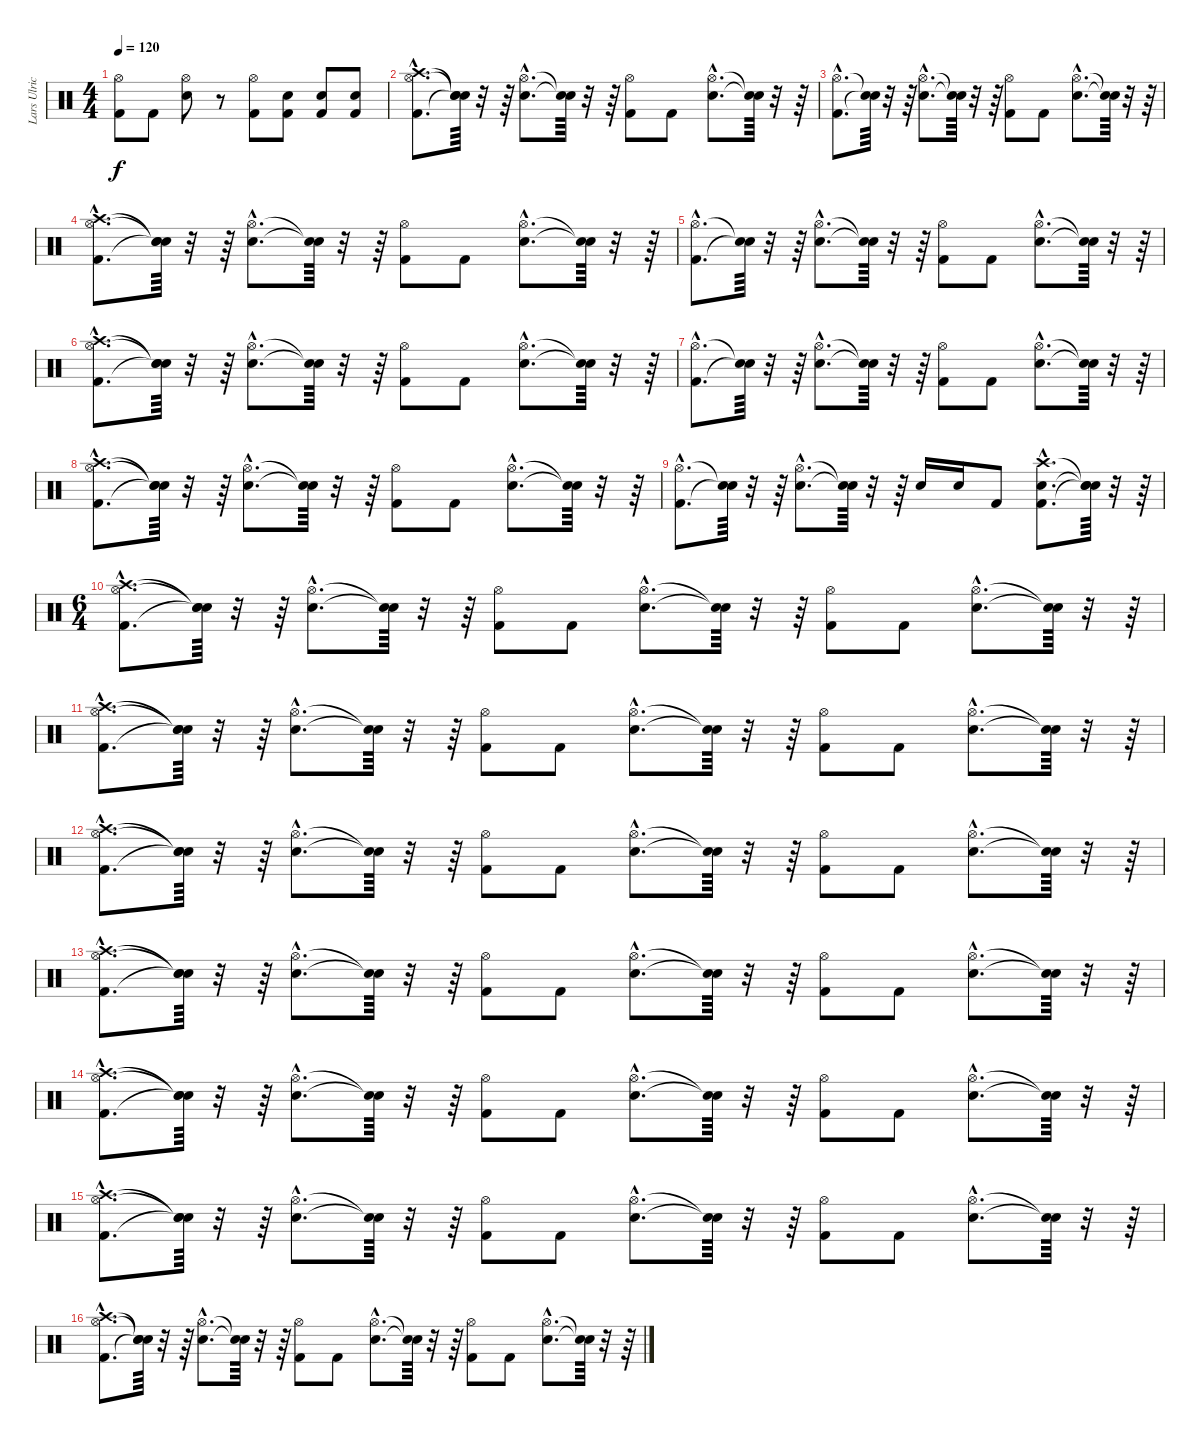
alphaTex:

\track ("Lars Ulrich" "Lars Ulric") {instrument percussion}
\staff {score}
\articulation defaults
\ts (4 4)
\tempo 120
\clef neutral
\ks c
("Kick (hit) 2" "Hi-Hat (open)").8{dy f} "Kick (hit) 2".8 ("Snare (hit) 2" "Hi-Hat (open)").8 r.8 ("Kick (hit) 2" "Hi-Hat (open)").8 ("Kick (hit) 2" "Snare (hit) 2").8 ("Kick (hit) 2" "Snare (hit) 2").8 ("Kick (hit) 2" "Snare (hit) 2").8 |
("Kick (hit) 2"{hac} "Hi-Hat (open)"{hac} "Crash high (hit)"{hac}).8{d} ("Snare (hit)"{t} "Snare (hit)"{t} "Snare (hit)"{t}).64 r.32 r.64 ("Snare (hit) 2"{hac} "Hi-Hat (open)"{hac}).8{d} ("Snare (hit)"{t} "Snare (hit)"{t}).64 r.32 r.64 ("Kick (hit) 2" "Hi-Hat (open)").8 "Kick (hit) 2".8 ("Snare (hit) 2"{hac} "Hi-Hat (open)"{hac}).8{d} ("Snare (hit)"{t} "Snare (hit)"{t}).64 r.32 r.64 |
("Kick (hit) 2"{hac} "Hi-Hat (open)"{hac}).8{d} ("Snare (hit)"{t} "Snare (hit)"{t}).64 r.32 r.64 ("Snare (hit) 2"{hac} "Hi-Hat (open)"{hac}).8{d} ("Snare (hit)"{t} "Snare (hit)"{t}).64 r.32 r.64 ("Kick (hit) 2" "Hi-Hat (open)").8 "Kick (hit) 2".8 ("Snare (hit) 2"{hac} "Hi-Hat (open)"{hac}).8{d} ("Snare (hit)"{t} "Snare (hit)"{t}).64 r.32 r.64 |
("Kick (hit) 2"{hac} "Hi-Hat (open)"{hac} "Crash high (hit)"{hac}).8{d} ("Snare (hit)"{t} "Snare (hit)"{t} "Snare (hit)"{t}).64 r.32 r.64 ("Snare (hit) 2"{hac} "Hi-Hat (open)"{hac}).8{d} ("Snare (hit)"{t} "Snare (hit)"{t}).64 r.32 r.64 ("Kick (hit) 2" "Hi-Hat (open)").8 "Kick (hit) 2".8 ("Snare (hit) 2"{hac} "Hi-Hat (open)"{hac}).8{d} ("Snare (hit)"{t} "Snare (hit)"{t}).64 r.32 r.64 |
("Kick (hit) 2"{hac} "Hi-Hat (open)"{hac}).8{d} ("Snare (hit)"{t} "Snare (hit)"{t}).64 r.32 r.64 ("Snare (hit) 2"{hac} "Hi-Hat (open)"{hac}).8{d} ("Snare (hit)"{t} "Snare (hit)"{t}).64 r.32 r.64 ("Kick (hit) 2" "Hi-Hat (open)").8 "Kick (hit) 2".8 ("Snare (hit) 2"{hac} "Hi-Hat (open)"{hac}).8{d} ("Snare (hit)"{t} "Snare (hit)"{t}).64 r.32 r.64 |
("Kick (hit) 2"{hac} "Hi-Hat (open)"{hac} "Crash high (hit)"{hac}).8{d} ("Snare (hit)"{t} "Snare (hit)"{t} "Snare (hit)"{t}).64 r.32 r.64 ("Snare (hit) 2"{hac} "Hi-Hat (open)"{hac}).8{d} ("Snare (hit)"{t} "Snare (hit)"{t}).64 r.32 r.64 ("Kick (hit) 2" "Hi-Hat (open)").8 "Kick (hit) 2".8 ("Snare (hit) 2"{hac} "Hi-Hat (open)"{hac}).8{d} ("Snare (hit)"{t} "Snare (hit)"{t}).64 r.32 r.64 |
("Kick (hit) 2"{hac} "Hi-Hat (open)"{hac}).8{d} ("Snare (hit)"{t} "Snare (hit)"{t}).64 r.32 r.64 ("Snare (hit) 2"{hac} "Hi-Hat (open)"{hac}).8{d} ("Snare (hit)"{t} "Snare (hit)"{t}).64 r.32 r.64 ("Kick (hit) 2" "Hi-Hat (open)").8 "Kick (hit) 2".8 ("Snare (hit) 2"{hac} "Hi-Hat (open)"{hac}).8{d} ("Snare (hit)"{t} "Snare (hit)"{t}).64 r.32 r.64 |
("Kick (hit) 2"{hac} "Hi-Hat (open)"{hac} "Crash high (hit)"{hac}).8{d} ("Snare (hit)"{t} "Snare (hit)"{t} "Snare (hit)"{t}).64 r.32 r.64 ("Snare (hit) 2"{hac} "Hi-Hat (open)"{hac}).8{d} ("Snare (hit)"{t} "Snare (hit)"{t}).64 r.32 r.64 ("Kick (hit) 2" "Hi-Hat (open)").8 "Kick (hit) 2".8 ("Snare (hit) 2"{hac} "Hi-Hat (open)"{hac}).8{d} ("Snare (hit)"{t} "Snare (hit)"{t}).64 r.32 r.64 |
("Kick (hit) 2"{hac} "Hi-Hat (open)"{hac}).8{d} ("Snare (hit)"{t} "Snare (hit)"{t}).64 r.32 r.64 ("Snare (hit) 2"{hac} "Hi-Hat (open)"{hac}).8{d} ("Snare (hit)"{t} "Snare (hit)"{t}).64 r.32 r.64 "Snare (hit) 2".16 "Snare (hit) 2".16 "Kick (hit) 2".8 ("Kick (hit) 2"{hac} "Snare (hit) 2"{hac} "Crash high (hit)"{hac}).8{d} ("Snare (hit)"{t} "Snare (hit)"{t} "Snare (hit)"{t}).64 r.32 r.64 |
\ts (6 4)
("Kick (hit) 2"{hac} "Hi-Hat (open)"{hac} "Crash high (hit)"{hac}).8{d} ("Snare (hit)"{t} "Snare (hit)"{t} "Snare (hit)"{t}).64 r.32 r.64 ("Snare (hit) 2"{hac} "Hi-Hat (open)"{hac}).8{d} ("Snare (hit)"{t} "Snare (hit)"{t}).64 r.32 r.64 ("Kick (hit) 2" "Hi-Hat (open)").8 "Kick (hit) 2".8 ("Snare (hit) 2"{hac} "Hi-Hat (open)"{hac}).8{d} ("Snare (hit)"{t} "Snare (hit)"{t}).64 r.32 r.64 ("Kick (hit) 2" "Hi-Hat (open)").8 "Kick (hit) 2".8 ("Snare (hit) 2"{hac} "Hi-Hat (open)"{hac}).8{d} ("Snare (hit)"{t} "Snare (hit)"{t}).64 r.32 r.64 |
("Kick (hit) 2"{hac} "Hi-Hat (open)"{hac} "Crash high (hit)"{hac}).8{d} ("Snare (hit)"{t} "Snare (hit)"{t} "Snare (hit)"{t}).64 r.32 r.64 ("Snare (hit) 2"{hac} "Hi-Hat (open)"{hac}).8{d} ("Snare (hit)"{t} "Snare (hit)"{t}).64 r.32 r.64 ("Kick (hit) 2" "Hi-Hat (open)").8 "Kick (hit) 2".8 ("Snare (hit) 2"{hac} "Hi-Hat (open)"{hac}).8{d} ("Snare (hit)"{t} "Snare (hit)"{t}).64 r.32 r.64 ("Kick (hit) 2" "Hi-Hat (open)").8 "Kick (hit) 2".8 ("Snare (hit) 2"{hac} "Hi-Hat (open)"{hac}).8{d} ("Snare (hit)"{t} "Snare (hit)"{t}).64 r.32 r.64 |
("Kick (hit) 2"{hac} "Hi-Hat (open)"{hac} "Crash high (hit)"{hac}).8{d} ("Snare (hit)"{t} "Snare (hit)"{t} "Snare (hit)"{t}).64 r.32 r.64 ("Snare (hit) 2"{hac} "Hi-Hat (open)"{hac}).8{d} ("Snare (hit)"{t} "Snare (hit)"{t}).64 r.32 r.64 ("Kick (hit) 2" "Hi-Hat (open)").8 "Kick (hit) 2".8 ("Snare (hit) 2"{hac} "Hi-Hat (open)"{hac}).8{d} ("Snare (hit)"{t} "Snare (hit)"{t}).64 r.32 r.64 ("Kick (hit) 2" "Hi-Hat (open)").8 "Kick (hit) 2".8 ("Snare (hit) 2"{hac} "Hi-Hat (open)"{hac}).8{d} ("Snare (hit)"{t} "Snare (hit)"{t}).64 r.32 r.64 |
("Kick (hit) 2"{hac} "Hi-Hat (open)"{hac} "Crash high (hit)"{hac}).8{d} ("Snare (hit)"{t} "Snare (hit)"{t} "Snare (hit)"{t}).64 r.32 r.64 ("Snare (hit) 2"{hac} "Hi-Hat (open)"{hac}).8{d} ("Snare (hit)"{t} "Snare (hit)"{t}).64 r.32 r.64 ("Kick (hit) 2" "Hi-Hat (open)").8 "Kick (hit) 2".8 ("Snare (hit) 2"{hac} "Hi-Hat (open)"{hac}).8{d} ("Snare (hit)"{t} "Snare (hit)"{t}).64 r.32 r.64 ("Kick (hit) 2" "Hi-Hat (open)").8 "Kick (hit) 2".8 ("Snare (hit) 2"{hac} "Hi-Hat (open)"{hac}).8{d} ("Snare (hit)"{t} "Snare (hit)"{t}).64 r.32 r.64 |
("Kick (hit) 2"{hac} "Hi-Hat (open)"{hac} "Crash high (hit)"{hac}).8{d} ("Snare (hit)"{t} "Snare (hit)"{t} "Snare (hit)"{t}).64 r.32 r.64 ("Snare (hit) 2"{hac} "Hi-Hat (open)"{hac}).8{d} ("Snare (hit)"{t} "Snare (hit)"{t}).64 r.32 r.64 ("Kick (hit) 2" "Hi-Hat (open)").8 "Kick (hit) 2".8 ("Snare (hit) 2"{hac} "Hi-Hat (open)"{hac}).8{d} ("Snare (hit)"{t} "Snare (hit)"{t}).64 r.32 r.64 ("Kick (hit) 2" "Hi-Hat (open)").8 "Kick (hit) 2".8 ("Snare (hit) 2"{hac} "Hi-Hat (open)"{hac}).8{d} ("Snare (hit)"{t} "Snare (hit)"{t}).64 r.32 r.64 |
("Kick (hit) 2"{hac} "Hi-Hat (open)"{hac} "Crash high (hit)"{hac}).8{d} ("Snare (hit)"{t} "Snare (hit)"{t} "Snare (hit)"{t}).64 r.32 r.64 ("Snare (hit) 2"{hac} "Hi-Hat (open)"{hac}).8{d} ("Snare (hit)"{t} "Snare (hit)"{t}).64 r.32 r.64 ("Kick (hit) 2" "Hi-Hat (open)").8 "Kick (hit) 2".8 ("Snare (hit) 2"{hac} "Hi-Hat (open)"{hac}).8{d} ("Snare (hit)"{t} "Snare (hit)"{t}).64 r.32 r.64 ("Kick (hit) 2" "Hi-Hat (open)").8 "Kick (hit) 2".8 ("Snare (hit) 2"{hac} "Hi-Hat (open)"{hac}).8{d} ("Snare (hit)"{t} "Snare (hit)"{t}).64 r.32 r.64 |
("Kick (hit) 2"{hac} "Hi-Hat (open)"{hac} "Crash high (hit)"{hac}).8{d} ("Snare (hit)"{t} "Snare (hit)"{t} "Snare (hit)"{t}).64 r.32 r.64 ("Snare (hit) 2"{hac} "Hi-Hat (open)"{hac}).8{d} ("Snare (hit)"{t} "Snare (hit)"{t}).64 r.32 r.64 ("Kick (hit) 2" "Hi-Hat (open)").8 "Kick (hit) 2".8 ("Snare (hit) 2"{hac} "Hi-Hat (open)"{hac}).8{d} ("Snare (hit)"{t} "Snare (hit)"{t}).64 r.32 r.64 ("Kick (hit) 2" "Hi-Hat (open)").8 "Kick (hit) 2".8 ("Snare (hit) 2"{hac} "Hi-Hat (open)"{hac}).8{d} ("Snare (hit)"{t} "Snare (hit)"{t}).64 r.32 r.64
